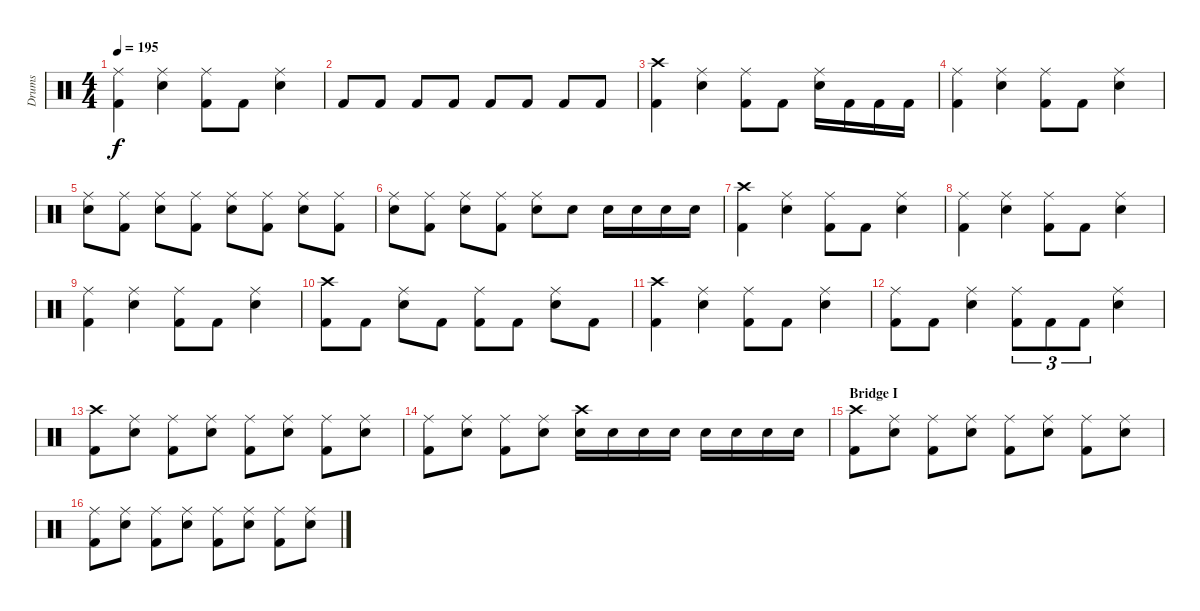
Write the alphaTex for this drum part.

\track ("Drums" "Drums") {instrument percussion}
\staff {score}
\articulation defaults
\ts (4 4)
\tempo 195
\clef neutral
\ks c
("Ride (middle)" "Kick (hit) 2").4{dy f} ("Ride (middle)" "Snare (hit) 2").4 ("Ride (middle)" "Kick (hit) 2").8 "Kick (hit) 2".8 ("Ride (middle)" "Snare (hit) 2").4 |
"Kick (hit) 2".8 "Kick (hit) 2".8 "Kick (hit) 2".8 "Kick (hit) 2".8 "Kick (hit) 2".8 "Kick (hit) 2".8 "Kick (hit) 2".8 "Kick (hit) 2".8 |
("Crash high (hit)" "Kick (hit) 2").4 ("Ride (middle)" "Snare (hit) 2").4 ("Ride (middle)" "Kick (hit) 2").8 "Kick (hit) 2".8 ("Ride (middle)" "Snare (hit) 2").16 "Kick (hit) 2".16 "Kick (hit) 2".16 "Kick (hit) 2".16 |
("Ride (middle)" "Kick (hit) 2").4 ("Ride (middle)" "Snare (hit) 2").4 ("Ride (middle)" "Kick (hit) 2").8 "Kick (hit) 2".8 ("Ride (middle)" "Snare (hit) 2").4 |
("Ride (middle)" "Snare (hit) 2").8 ("Ride (middle)" "Kick (hit) 2").8 ("Ride (middle)" "Snare (hit) 2").8 ("Ride (middle)" "Kick (hit) 2").8 ("Ride (middle)" "Snare (hit) 2").8 ("Ride (middle)" "Kick (hit) 2").8 ("Ride (middle)" "Snare (hit) 2").8 ("Ride (middle)" "Kick (hit) 2").8 |
("Ride (middle)" "Snare (hit) 2").8 ("Ride (middle)" "Kick (hit) 2").8 ("Ride (middle)" "Snare (hit) 2").8 ("Ride (middle)" "Kick (hit) 2").8 ("Ride (middle)" "Snare (hit) 2").8 "Snare (hit) 2".8 "Snare (hit) 2".16 "Snare (hit) 2".16 "Snare (hit) 2".16 "Snare (hit) 2".16 |
("Crash high (hit)" "Kick (hit) 2").4 ("Ride (middle)" "Snare (hit) 2").4 ("Ride (middle)" "Kick (hit) 2").8 "Kick (hit) 2".8 ("Ride (middle)" "Snare (hit) 2").4 |
("Ride (middle)" "Kick (hit) 2").4 ("Ride (middle)" "Snare (hit) 2").4 ("Ride (middle)" "Kick (hit) 2").8 "Kick (hit) 2".8 ("Ride (middle)" "Snare (hit) 2").4 |
("Ride (middle)" "Kick (hit) 2").4 ("Ride (middle)" "Snare (hit) 2").4 ("Ride (middle)" "Kick (hit) 2").8 "Kick (hit) 2".8 ("Ride (middle)" "Snare (hit) 2").4 |
("Crash high (hit)" "Kick (hit) 2").8 "Kick (hit) 2".8 ("Ride (middle)" "Snare (hit) 2").8 "Kick (hit) 2".8 ("Ride (middle)" "Kick (hit) 2").8 "Kick (hit) 2".8 ("Ride (middle)" "Snare (hit) 2").8 "Kick (hit) 2".8 |
("Crash high (hit)" "Kick (hit) 2").4 ("Ride (middle)" "Snare (hit) 2").4 ("Ride (middle)" "Kick (hit) 2").8 "Kick (hit) 2".8 ("Ride (middle)" "Snare (hit) 2").4 |
("Ride (middle)" "Kick (hit) 2").8 "Kick (hit) 2".8 ("Ride (middle)" "Snare (hit) 2").4 ("Ride (middle)" "Kick (hit) 2").8{tu (3 2)} "Kick (hit) 2".8{tu (3 2)} "Kick (hit) 2".8{tu (3 2)} ("Ride (middle)" "Snare (hit) 2").4 |
("Crash high (hit)" "Kick (hit) 2").8 ("Ride (middle)" "Snare (hit) 2").8 ("Ride (middle)" "Kick (hit) 2").8 ("Ride (middle)" "Snare (hit) 2").8 ("Ride (middle)" "Kick (hit) 2").8 ("Ride (middle)" "Snare (hit) 2").8 ("Ride (middle)" "Kick (hit) 2").8 ("Ride (middle)" "Snare (hit) 2").8 |
("Ride (middle)" "Kick (hit) 2").8 ("Ride (middle)" "Snare (hit) 2").8 ("Ride (middle)" "Kick (hit) 2").8 ("Ride (middle)" "Snare (hit) 2").8 ("Crash high (hit)" "Snare (hit) 2").16 "Snare (hit) 2".16 "Snare (hit) 2".16 "Snare (hit) 2".16 "Snare (hit) 2".16 "Snare (hit) 2".16 "Snare (hit) 2".16 "Snare (hit) 2".16 |
\section ("" "Bridge I")
("Crash high (hit)" "Kick (hit) 2").8 ("Ride (middle)" "Snare (hit) 2").8 ("Ride (middle)" "Kick (hit) 2").8 ("Ride (middle)" "Snare (hit) 2").8 ("Ride (middle)" "Kick (hit) 2").8 ("Ride (middle)" "Snare (hit) 2").8 ("Ride (middle)" "Kick (hit) 2").8 ("Ride (middle)" "Snare (hit) 2").8 |
("Ride (middle)" "Kick (hit) 2").8 ("Ride (middle)" "Snare (hit) 2").8 ("Ride (middle)" "Kick (hit) 2").8 ("Ride (middle)" "Snare (hit) 2").8 ("Ride (middle)" "Kick (hit) 2").8 ("Ride (middle)" "Snare (hit) 2").8 ("Ride (middle)" "Kick (hit) 2").8 ("Ride (middle)" "Snare (hit) 2").8
